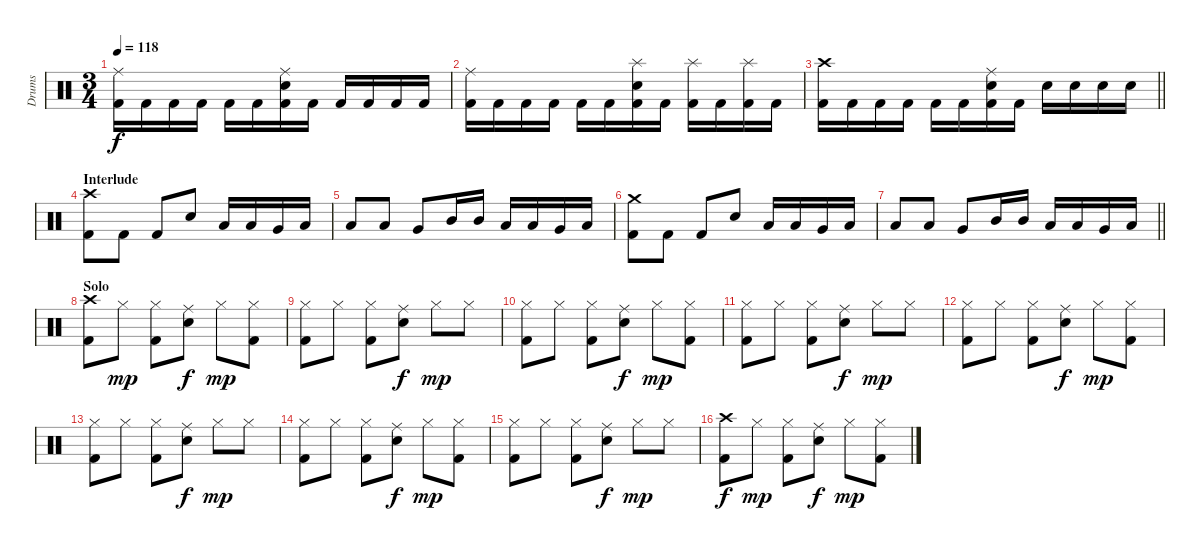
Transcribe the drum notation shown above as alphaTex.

\track ("Drums" "Drums") {instrument percussion}
\staff {score}
\articulation defaults
\ts (3 4)
\tempo 118
\clef neutral
\ks c
("Ride (middle)" "Kick (hit) 2").16{dy f} "Kick (hit) 2".16 "Kick (hit) 2".16 "Kick (hit) 2".16 "Kick (hit) 2".16 "Kick (hit) 2".16 ("Ride (middle)" "Snare (hit) 2" "Kick (hit) 2").16 "Kick (hit) 2".16 "Kick (hit) 2".16 "Kick (hit) 2".16 "Kick (hit) 2".16 "Kick (hit) 2".16 |
("Ride (middle)" "Kick (hit) 2").16 "Kick (hit) 2".16 "Kick (hit) 2".16 "Kick (hit) 2".16 "Kick (hit) 2".16 "Kick (hit) 2".16 ("Splash (hit)" "Snare (hit) 2" "Kick (hit) 2").16 "Kick (hit) 2".16 ("Splash (hit)" "Kick (hit) 2").16 "Kick (hit) 2".16 ("Splash (hit)" "Kick (hit) 2").16 "Kick (hit) 2".16 |
\barLineRight lightlight
("Crash high (hit)" "Kick (hit) 2").16 "Kick (hit) 2".16 "Kick (hit) 2".16 "Kick (hit) 2".16 "Kick (hit) 2".16 "Kick (hit) 2".16 ("Ride (middle)" "Snare (hit) 2" "Kick (hit) 2").16 "Kick (hit) 2".16 "Snare (hit) 2".16 "Snare (hit) 2".16 "Snare (hit) 2".16 "Snare (hit) 2".16 |
\section ("" "Interlude")
("Crash high (hit)" "Kick (hit) 2").8 "Kick (hit) 2".8 "Kick (hit) 2".8 "Snare (hit) 2".8 "Low Tom (hit)".16 "Low Tom (hit)".16 "Very Low Tom (hit)".16 "Low Floor Tom (hit)".16 |
"Low Floor Tom (hit)".8 "Low Floor Tom (hit)".8 "Very Low Tom (hit)".8 "Mid Tom (hit)".16 "Mid Tom (hit)".16 "Low Tom (hit)".16 "Low Tom (hit)".16 "Very Low Tom (hit)".16 "Low Floor Tom (hit)".16 |
("Crash medium (hit)" "Kick (hit) 2").8 "Kick (hit) 2".8 "Kick (hit) 2".8 "Snare (hit) 2".8 "Low Tom (hit)".16 "Low Tom (hit)".16 "Very Low Tom (hit)".16 "Low Floor Tom (hit)".16 |
\barLineRight lightlight "Low Floor Tom (hit)".8 "Low Floor Tom (hit)".8 "Very Low Tom (hit)".8 "Mid Tom (hit)".16 "Mid Tom (hit)".16 "Low Tom (hit)".16 "Low Tom (hit)".16 "Very Low Tom (hit)".16 "Low Floor Tom (hit)".16
|
\section ("" "Solo")
("Crash high (hit)" "Kick (hit) 2").8 "Hi-Hat (closed)".8{dy mp} ("Hi-Hat (closed)" "Kick (hit) 2").8 ("Ride (middle)" "Snare (hit) 2").8{dy f} "Hi-Hat (closed)".8{dy mp} ("Hi-Hat (closed)" "Kick (hit) 2").8 |
("Hi-Hat (closed)" "Kick (hit) 2").8 "Hi-Hat (closed)".8 ("Hi-Hat (closed)" "Kick (hit) 2").8 ("Ride (middle)" "Snare (hit) 2").8{dy f} "Hi-Hat (closed)".8{dy mp} "Hi-Hat (closed)".8 |
("Hi-Hat (closed)" "Kick (hit) 2").8 "Hi-Hat (closed)".8 ("Hi-Hat (closed)" "Kick (hit) 2").8 ("Ride (middle)" "Snare (hit) 2").8{dy f} "Hi-Hat (closed)".8{dy mp} ("Hi-Hat (closed)" "Kick (hit) 2").8 |
("Hi-Hat (closed)" "Kick (hit) 2").8 "Hi-Hat (closed)".8 ("Hi-Hat (closed)" "Kick (hit) 2").8 ("Ride (middle)" "Snare (hit) 2").8{dy f} "Hi-Hat (closed)".8{dy mp} "Hi-Hat (closed)".8 |
("Hi-Hat (closed)" "Kick (hit) 2").8 "Hi-Hat (closed)".8 ("Hi-Hat (closed)" "Kick (hit) 2").8 ("Ride (middle)" "Snare (hit) 2").8{dy f} "Hi-Hat (closed)".8{dy mp} ("Hi-Hat (closed)" "Kick (hit) 2").8 |
("Hi-Hat (closed)" "Kick (hit) 2").8 "Hi-Hat (closed)".8 ("Hi-Hat (closed)" "Kick (hit) 2").8 ("Ride (middle)" "Snare (hit) 2").8{dy f} "Hi-Hat (closed)".8{dy mp} "Hi-Hat (closed)".8 |
("Hi-Hat (closed)" "Kick (hit) 2").8 "Hi-Hat (closed)".8 ("Hi-Hat (closed)" "Kick (hit) 2").8 ("Ride (middle)" "Snare (hit) 2").8{dy f} "Hi-Hat (closed)".8{dy mp} ("Hi-Hat (closed)" "Kick (hit) 2").8 |
("Hi-Hat (closed)" "Kick (hit) 2").8 "Hi-Hat (closed)".8 ("Hi-Hat (closed)" "Kick (hit) 2").8 ("Ride (middle)" "Snare (hit) 2").8{dy f} "Hi-Hat (closed)".8{dy mp} "Hi-Hat (closed)".8 |
("Crash high (hit)" "Kick (hit) 2").8{dy f} "Hi-Hat (closed)".8{dy mp} ("Hi-Hat (closed)" "Kick (hit) 2").8 ("Ride (middle)" "Snare (hit) 2").8{dy f} "Hi-Hat (closed)".8{dy mp} ("Hi-Hat (closed)" "Kick (hit) 2").8
